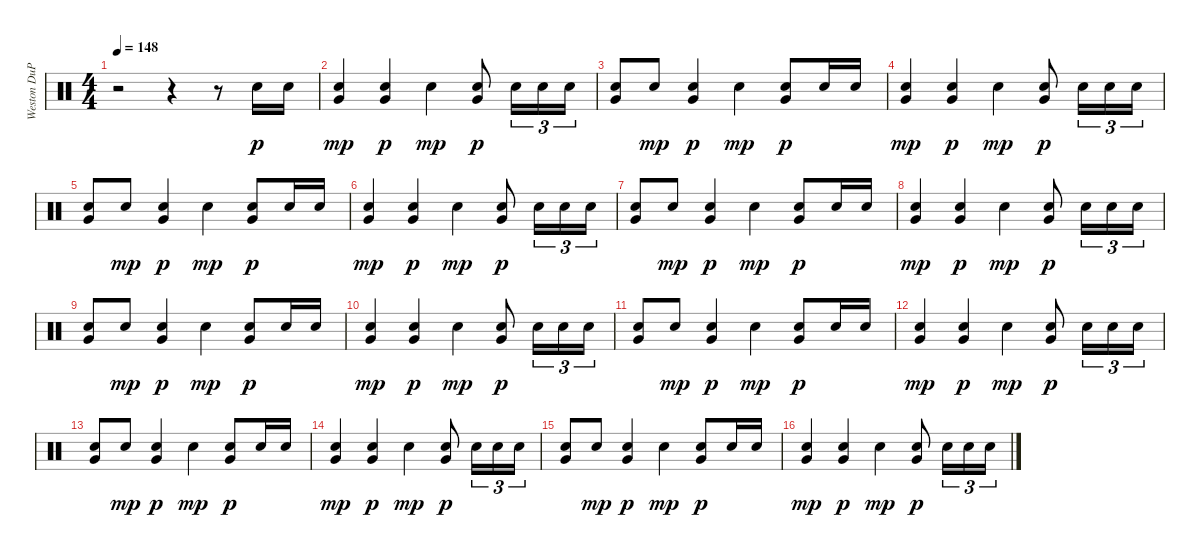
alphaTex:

\track ("Weston DuPree" "Weston DuP") {instrument percussion}
\staff {score}
\articulation defaults
\ts (4 4)
\tempo 148
\clef neutral
\ks c
r.2{dy mp} r.4 r.8 "Snare (hit) 2".16{dy p} "Snare (hit) 2".16 |
("Snare (hit) 2" "Very Low Tom (hit)").4{dy mp volume 14} ("Snare (hit) 2" "Very Low Tom (hit)").4{dy p} "Electric Snare (hit)".4{dy mp} ("Electric Snare (hit)" "Very Low Tom (hit)").8{dy p} "Snare (hit) 2".16{tu (3 2)} "Snare (hit) 2".16{tu (3 2)} "Snare (hit) 2".16{tu (3 2)} |
("Snare (hit) 2" "Very Low Tom (hit)").8 "Electric Snare (hit)".8{dy mp} ("Snare (hit) 2" "Very Low Tom (hit)").4{dy p} "Electric Snare (hit)".4{dy mp} ("Snare (hit) 2" "Very Low Tom (hit)").8{dy p} "Snare (hit) 2".16 "Snare (hit) 2".16 |
("Snare (hit) 2" "Very Low Tom (hit)").4{dy mp} ("Snare (hit) 2" "Very Low Tom (hit)").4{dy p} "Electric Snare (hit)".4{dy mp} ("Electric Snare (hit)" "Very Low Tom (hit)").8{dy p} "Snare (hit) 2".16{tu (3 2)} "Snare (hit) 2".16{tu (3 2)} "Snare (hit) 2".16{tu (3 2)} |
("Snare (hit) 2" "Very Low Tom (hit)").8 "Electric Snare (hit)".8{dy mp} ("Snare (hit) 2" "Very Low Tom (hit)").4{dy p} "Electric Snare (hit)".4{dy mp} ("Snare (hit) 2" "Very Low Tom (hit)").8{dy p} "Snare (hit) 2".16 "Snare (hit) 2".16 |
("Snare (hit) 2" "Very Low Tom (hit)").4{dy mp} ("Snare (hit) 2" "Very Low Tom (hit)").4{dy p} "Electric Snare (hit)".4{dy mp} ("Electric Snare (hit)" "Very Low Tom (hit)").8{dy p} "Snare (hit) 2".16{tu (3 2)} "Snare (hit) 2".16{tu (3 2)} "Snare (hit) 2".16{tu (3 2)} |
("Snare (hit) 2" "Very Low Tom (hit)").8 "Electric Snare (hit)".8{dy mp} ("Snare (hit) 2" "Very Low Tom (hit)").4{dy p} "Electric Snare (hit)".4{dy mp} ("Snare (hit) 2" "Very Low Tom (hit)").8{dy p} "Snare (hit) 2".16 "Snare (hit) 2".16 |
("Snare (hit) 2" "Very Low Tom (hit)").4{dy mp} ("Snare (hit) 2" "Very Low Tom (hit)").4{dy p} "Electric Snare (hit)".4{dy mp} ("Electric Snare (hit)" "Very Low Tom (hit)").8{dy p} "Snare (hit) 2".16{tu (3 2)} "Snare (hit) 2".16{tu (3 2)} "Snare (hit) 2".16{tu (3 2)} |
("Snare (hit) 2" "Very Low Tom (hit)").8 "Electric Snare (hit)".8{dy mp} ("Snare (hit) 2" "Very Low Tom (hit)").4{dy p} "Electric Snare (hit)".4{dy mp} ("Snare (hit) 2" "Very Low Tom (hit)").8{dy p} "Snare (hit) 2".16 "Snare (hit) 2".16 |
("Snare (hit) 2" "Very Low Tom (hit)").4{dy mp} ("Snare (hit) 2" "Very Low Tom (hit)").4{dy p} "Electric Snare (hit)".4{dy mp} ("Electric Snare (hit)" "Very Low Tom (hit)").8{dy p} "Snare (hit) 2".16{tu (3 2)} "Snare (hit) 2".16{tu (3 2)} "Snare (hit) 2".16{tu (3 2)} |
("Snare (hit) 2" "Very Low Tom (hit)").8 "Electric Snare (hit)".8{dy mp} ("Snare (hit) 2" "Very Low Tom (hit)").4{dy p} "Electric Snare (hit)".4{dy mp} ("Snare (hit) 2" "Very Low Tom (hit)").8{dy p} "Snare (hit) 2".16 "Snare (hit) 2".16 |
("Snare (hit) 2" "Very Low Tom (hit)").4{dy mp} ("Snare (hit) 2" "Very Low Tom (hit)").4{dy p} "Electric Snare (hit)".4{dy mp} ("Electric Snare (hit)" "Very Low Tom (hit)").8{dy p} "Snare (hit) 2".16{tu (3 2)} "Snare (hit) 2".16{tu (3 2)} "Snare (hit) 2".16{tu (3 2)} |
("Snare (hit) 2" "Very Low Tom (hit)").8 "Electric Snare (hit)".8{dy mp} ("Snare (hit) 2" "Very Low Tom (hit)").4{dy p} "Electric Snare (hit)".4{dy mp} ("Snare (hit) 2" "Very Low Tom (hit)").8{dy p} "Snare (hit) 2".16 "Snare (hit) 2".16 |
("Snare (hit) 2" "Very Low Tom (hit)").4{dy mp} ("Snare (hit) 2" "Very Low Tom (hit)").4{dy p} "Electric Snare (hit)".4{dy mp} ("Electric Snare (hit)" "Very Low Tom (hit)").8{dy p} "Snare (hit) 2".16{tu (3 2)} "Snare (hit) 2".16{tu (3 2)} "Snare (hit) 2".16{tu (3 2)} |
("Snare (hit) 2" "Very Low Tom (hit)").8 "Electric Snare (hit)".8{dy mp} ("Snare (hit) 2" "Very Low Tom (hit)").4{dy p} "Electric Snare (hit)".4{dy mp} ("Snare (hit) 2" "Very Low Tom (hit)").8{dy p} "Snare (hit) 2".16 "Snare (hit) 2".16 |
("Snare (hit) 2" "Very Low Tom (hit)").4{dy mp} ("Snare (hit) 2" "Very Low Tom (hit)").4{dy p} "Electric Snare (hit)".4{dy mp} ("Electric Snare (hit)" "Very Low Tom (hit)").8{dy p} "Snare (hit) 2".16{tu (3 2)} "Snare (hit) 2".16{tu (3 2)} "Snare (hit) 2".16{tu (3 2)}
